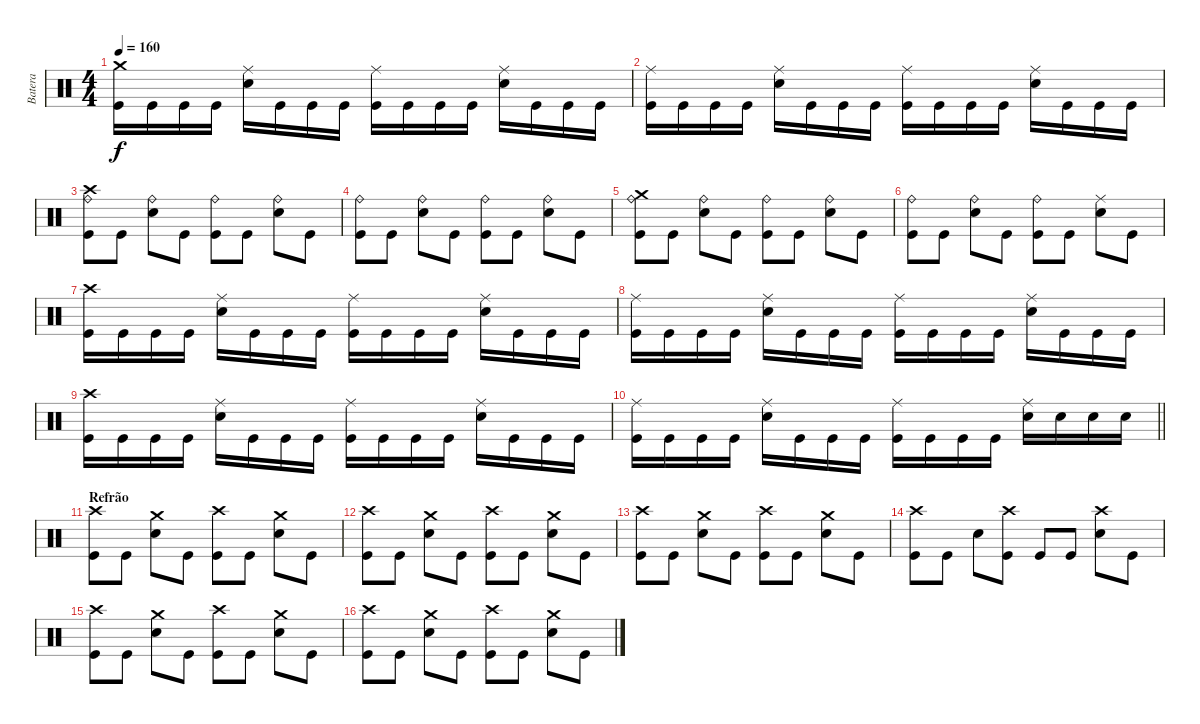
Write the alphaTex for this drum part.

\track ("Batera" "Batera") {instrument percussion}
\staff {score}
\articulation defaults
\ts (4 4)
\tempo 160
\clef neutral
\ks c
("Kick (hit)" "Crash medium (hit)").16{dy f} "Kick (hit)".16 "Kick (hit)".16 "Kick (hit)".16 ("Snare (hit) 2" "Ride (middle)").16 "Kick (hit)".16 "Kick (hit)".16 "Kick (hit)".16 ("Kick (hit)" "Ride (middle)").16 "Kick (hit)".16 "Kick (hit)".16 "Kick (hit)".16 ("Snare (hit) 2" "Ride (middle)").16 "Kick (hit)".16 "Kick (hit)".16 "Kick (hit)".16 |
("Kick (hit)" "Ride (middle)").16 "Kick (hit)".16 "Kick (hit)".16 "Kick (hit)".16 ("Snare (hit) 2" "Ride (middle)").16 "Kick (hit)".16 "Kick (hit)".16 "Kick (hit)".16 ("Kick (hit)" "Ride (middle)").16 "Kick (hit)".16 "Kick (hit)".16 "Kick (hit)".16 ("Snare (hit) 2" "Ride (middle)").16 "Kick (hit)".16 "Kick (hit)".16 "Kick (hit)".16 |
("Kick (hit)" "Ride (bell)" "Crash high (hit)").8 "Kick (hit)".8 ("Snare (hit) 2" "Ride (bell)").8 "Kick (hit)".8 ("Kick (hit)" "Ride (bell)").8 "Kick (hit)".8 ("Snare (hit) 2" "Ride (bell)").8 "Kick (hit)".8 |
("Kick (hit)" "Ride (bell)").8 "Kick (hit)".8 ("Snare (hit) 2" "Ride (bell)").8 "Kick (hit)".8 ("Kick (hit)" "Ride (bell)").8 "Kick (hit)".8 ("Snare (hit) 2" "Ride (bell)").8 "Kick (hit)".8 |
("Kick (hit)" "Ride (bell)" "Crash medium (hit)").8 "Kick (hit)".8 ("Snare (hit) 2" "Ride (bell)").8 "Kick (hit)".8 ("Kick (hit)" "Ride (bell)").8 "Kick (hit)".8 ("Snare (hit) 2" "Ride (bell)").8 "Kick (hit)".8 |
("Kick (hit)" "Ride (bell)").8 "Kick (hit)".8 ("Snare (hit) 2" "Ride (bell)").8 "Kick (hit)".8 ("Kick (hit)" "Ride (bell)").8 "Kick (hit)".8 ("Snare (hit) 2" "Ride (middle)").8 "Kick (hit)".8 |
("Kick (hit)" "Crash high (hit)").16 "Kick (hit)".16 "Kick (hit)".16 "Kick (hit)".16 ("Snare (hit) 2" "Ride (middle)").16 "Kick (hit)".16 "Kick (hit)".16 "Kick (hit)".16 ("Kick (hit)" "Ride (middle)").16 "Kick (hit)".16 "Kick (hit)".16 "Kick (hit)".16 ("Snare (hit) 2" "Ride (middle)").16 "Kick (hit)".16 "Kick (hit)".16 "Kick (hit)".16 |
("Kick (hit)" "Ride (middle)").16 "Kick (hit)".16 "Kick (hit)".16 "Kick (hit)".16 ("Snare (hit) 2" "Ride (middle)").16 "Kick (hit)".16 "Kick (hit)".16 "Kick (hit)".16 ("Kick (hit)" "Ride (middle)").16 "Kick (hit)".16 "Kick (hit)".16 "Kick (hit)".16 ("Snare (hit) 2" "Ride (middle)").16 "Kick (hit)".16 "Kick (hit)".16 "Kick (hit)".16 |
("Kick (hit)" "Crash high (hit)").16 "Kick (hit)".16 "Kick (hit)".16 "Kick (hit)".16 ("Snare (hit) 2" "Ride (middle)").16 "Kick (hit)".16 "Kick (hit)".16 "Kick (hit)".16 ("Kick (hit)" "Ride (middle)").16 "Kick (hit)".16 "Kick (hit)".16 "Kick (hit)".16 ("Snare (hit) 2" "Ride (middle)").16 "Kick (hit)".16 "Kick (hit)".16 "Kick (hit)".16 |
\barLineRight lightlight
("Kick (hit)" "Ride (middle)").16 "Kick (hit)".16 "Kick (hit)".16 "Kick (hit)".16 ("Snare (hit) 2" "Ride (middle)").16 "Kick (hit)".16 "Kick (hit)".16 "Kick (hit)".16 ("Kick (hit)" "Ride (middle)").16 "Kick (hit)".16 "Kick (hit)".16 "Kick (hit)".16 ("Snare (hit) 2" "Ride (middle)").16 "Snare (hit) 2".16 "Snare (hit) 2".16 "Snare (hit) 2".16 |
\section ("" "Refrão")
("Kick (hit)" "Crash high (hit)").8 "Kick (hit)".8 ("Snare (hit) 2" "Crash medium (hit)").8 "Kick (hit)".8 ("Kick (hit)" "Crash high (hit)").8 "Kick (hit)".8 ("Snare (hit) 2" "Crash medium (hit)").8 "Kick (hit)".8 |
("Kick (hit)" "Crash high (hit)").8 "Kick (hit)".8 ("Snare (hit) 2" "Crash medium (hit)").8 "Kick (hit)".8 ("Kick (hit)" "Crash high (hit)").8 "Kick (hit)".8 ("Snare (hit) 2" "Crash medium (hit)").8 "Kick (hit)".8 |
("Kick (hit)" "Crash high (hit)").8 "Kick (hit)".8 ("Snare (hit) 2" "Crash medium (hit)").8 "Kick (hit)".8 ("Kick (hit)" "Crash high (hit)").8 "Kick (hit)".8 ("Snare (hit) 2" "Crash medium (hit)").8 "Kick (hit)".8 |
("Kick (hit)" "Crash high (hit)").8 "Kick (hit)".8 "Snare (hit) 2".8 ("Kick (hit)" "Crash high (hit)").8 "Kick (hit)".8 "Kick (hit)".8 ("Snare (hit) 2" "Crash high (hit)").8 "Kick (hit)".8 |
("Kick (hit)" "Crash high (hit)").8 "Kick (hit)".8 ("Snare (hit) 2" "Crash medium (hit)").8 "Kick (hit)".8 ("Kick (hit)" "Crash high (hit)").8 "Kick (hit)".8 ("Snare (hit) 2" "Crash medium (hit)").8 "Kick (hit)".8 |
("Kick (hit)" "Crash high (hit)").8 "Kick (hit)".8 ("Snare (hit) 2" "Crash medium (hit)").8 "Kick (hit)".8 ("Kick (hit)" "Crash high (hit)").8 "Kick (hit)".8 ("Snare (hit) 2" "Crash medium (hit)").8 "Kick (hit)".8
